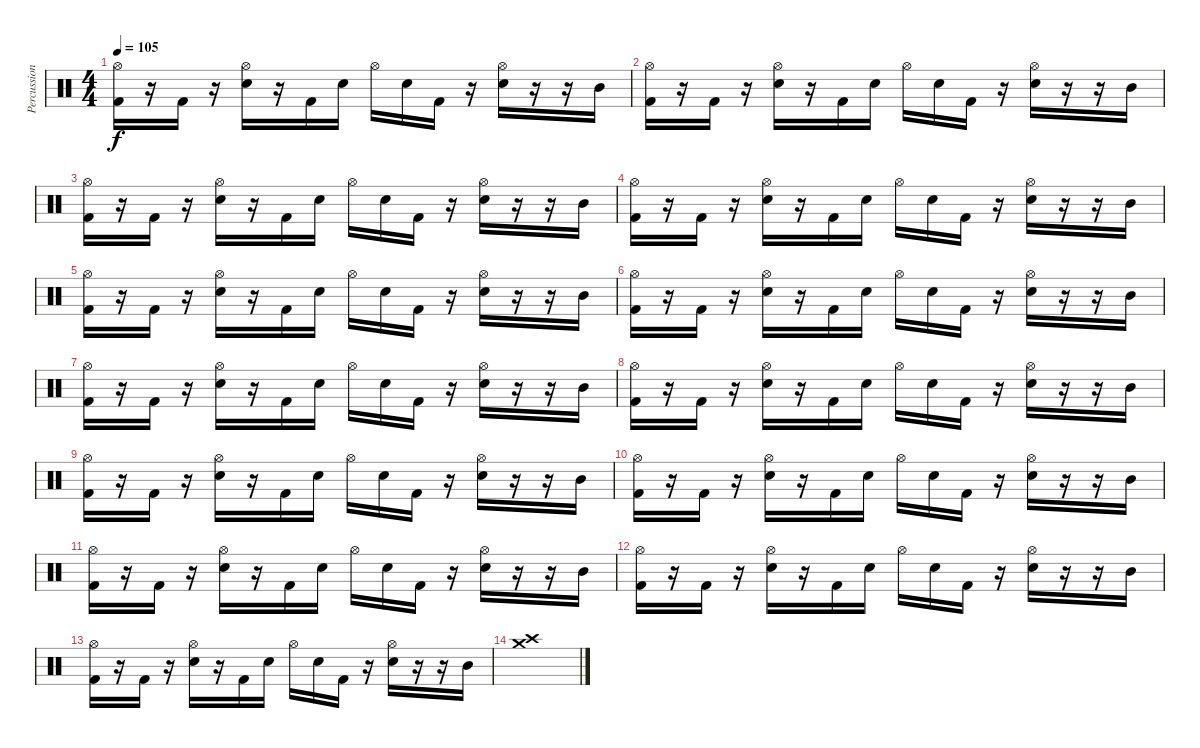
\track ("Percussion" "Percussion") {instrument percussion}
\staff {score}
\articulation defaults
\ts (4 4)
\tempo 105
\clef neutral
\ks c
("Hi-Hat (open)" "Kick (hit) 2").16{dy f} r.16 "Kick (hit) 2".16 r.16 ("Hi-Hat (open)" "Snare (hit) 2").16 r.16 "Kick (hit) 2".16 "Snare (hit) 2".16 "Hi-Hat (open)".16 "Snare (hit) 2".16 "Kick (hit) 2".16 r.16 ("Hi-Hat (open)" "Snare (hit) 2").16 r.16 r.16 "Mid Tom (hit)".16 |
("Hi-Hat (open)" "Kick (hit) 2").16 r.16 "Kick (hit) 2".16 r.16 ("Hi-Hat (open)" "Snare (hit) 2").16 r.16 "Kick (hit) 2".16 "Snare (hit) 2".16 "Hi-Hat (open)".16 "Snare (hit) 2".16 "Kick (hit) 2".16 r.16 ("Hi-Hat (open)" "Snare (hit) 2").16 r.16 r.16 "Mid Tom (hit)".16 |
("Hi-Hat (open)" "Kick (hit) 2").16 r.16 "Kick (hit) 2".16 r.16 ("Hi-Hat (open)" "Snare (hit) 2").16 r.16 "Kick (hit) 2".16 "Snare (hit) 2".16 "Hi-Hat (open)".16 "Snare (hit) 2".16 "Kick (hit) 2".16 r.16 ("Hi-Hat (open)" "Snare (hit) 2").16 r.16 r.16 "Mid Tom (hit)".16 |
("Hi-Hat (open)" "Kick (hit) 2").16 r.16 "Kick (hit) 2".16 r.16 ("Hi-Hat (open)" "Snare (hit) 2").16 r.16 "Kick (hit) 2".16 "Snare (hit) 2".16 "Hi-Hat (open)".16 "Snare (hit) 2".16 "Kick (hit) 2".16 r.16 ("Hi-Hat (open)" "Snare (hit) 2").16 r.16 r.16 "Mid Tom (hit)".16 |
("Hi-Hat (open)" "Kick (hit) 2").16 r.16 "Kick (hit) 2".16 r.16 ("Hi-Hat (open)" "Snare (hit) 2").16 r.16 "Kick (hit) 2".16 "Snare (hit) 2".16 "Hi-Hat (open)".16 "Snare (hit) 2".16 "Kick (hit) 2".16 r.16 ("Hi-Hat (open)" "Snare (hit) 2").16 r.16 r.16 "Mid Tom (hit)".16 |
("Hi-Hat (open)" "Kick (hit) 2").16 r.16 "Kick (hit) 2".16 r.16 ("Hi-Hat (open)" "Snare (hit) 2").16 r.16 "Kick (hit) 2".16 "Snare (hit) 2".16 "Hi-Hat (open)".16 "Snare (hit) 2".16 "Kick (hit) 2".16 r.16 ("Hi-Hat (open)" "Snare (hit) 2").16 r.16 r.16 "Mid Tom (hit)".16 |
("Hi-Hat (open)" "Kick (hit) 2").16 r.16 "Kick (hit) 2".16 r.16 ("Hi-Hat (open)" "Snare (hit) 2").16 r.16 "Kick (hit) 2".16 "Snare (hit) 2".16 "Hi-Hat (open)".16 "Snare (hit) 2".16 "Kick (hit) 2".16 r.16 ("Hi-Hat (open)" "Snare (hit) 2").16 r.16 r.16 "Mid Tom (hit)".16 |
("Hi-Hat (open)" "Kick (hit) 2").16 r.16 "Kick (hit) 2".16 r.16 ("Hi-Hat (open)" "Snare (hit) 2").16 r.16 "Kick (hit) 2".16 "Snare (hit) 2".16 "Hi-Hat (open)".16 "Snare (hit) 2".16 "Kick (hit) 2".16 r.16 ("Hi-Hat (open)" "Snare (hit) 2").16 r.16 r.16 "Mid Tom (hit)".16 |
("Hi-Hat (open)" "Kick (hit) 2").16 r.16 "Kick (hit) 2".16 r.16 ("Hi-Hat (open)" "Snare (hit) 2").16 r.16 "Kick (hit) 2".16 "Snare (hit) 2".16 "Hi-Hat (open)".16 "Snare (hit) 2".16 "Kick (hit) 2".16 r.16 ("Hi-Hat (open)" "Snare (hit) 2").16 r.16 r.16 "Mid Tom (hit)".16 |
("Hi-Hat (open)" "Kick (hit) 2").16 r.16 "Kick (hit) 2".16 r.16 ("Hi-Hat (open)" "Snare (hit) 2").16 r.16 "Kick (hit) 2".16 "Snare (hit) 2".16 "Hi-Hat (open)".16 "Snare (hit) 2".16 "Kick (hit) 2".16 r.16 ("Hi-Hat (open)" "Snare (hit) 2").16 r.16 r.16 "Mid Tom (hit)".16 |
("Hi-Hat (open)" "Kick (hit) 2").16 r.16 "Kick (hit) 2".16 r.16 ("Hi-Hat (open)" "Snare (hit) 2").16 r.16 "Kick (hit) 2".16 "Snare (hit) 2".16 "Hi-Hat (open)".16 "Snare (hit) 2".16 "Kick (hit) 2".16 r.16 ("Hi-Hat (open)" "Snare (hit) 2").16 r.16 r.16 "Mid Tom (hit)".16 |
("Hi-Hat (open)" "Kick (hit) 2").16 r.16 "Kick (hit) 2".16 r.16 ("Hi-Hat (open)" "Snare (hit) 2").16 r.16 "Kick (hit) 2".16 "Snare (hit) 2".16 "Hi-Hat (open)".16 "Snare (hit) 2".16 "Kick (hit) 2".16 r.16 ("Hi-Hat (open)" "Snare (hit) 2").16 r.16 r.16 "Mid Tom (hit)".16 |
("Hi-Hat (open)" "Kick (hit) 2").16 r.16 "Kick (hit) 2".16 r.16 ("Hi-Hat (open)" "Snare (hit) 2").16 r.16 "Kick (hit) 2".16 "Snare (hit) 2".16 "Hi-Hat (open)".16 "Snare (hit) 2".16 "Kick (hit) 2".16 r.16 ("Hi-Hat (open)" "Snare (hit) 2").16 r.16 r.16 "Mid Tom (hit)".16 |
("Crash high (hit)" "Crash medium (hit)").1
